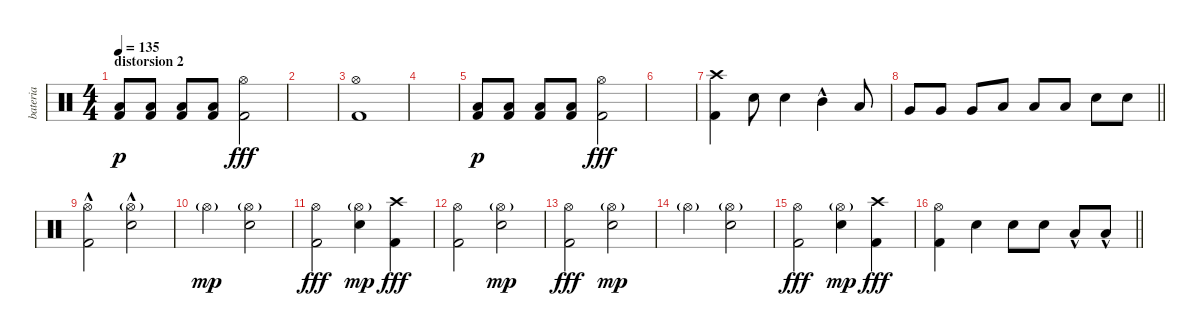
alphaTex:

\track ("bateria" "bateria") {instrument percussion}
\staff {score}
\articulation defaults
\ts (4 4)
\section ("" "distorsion 2")
\tempo 135
\clef neutral
\ks c
("Low Floor Tom (hit)" "Kick (hit) 2").8{dy p} ("Low Floor Tom (hit)" "Kick (hit) 2").8 ("Low Floor Tom (hit)" "Kick (hit) 2").8 ("Low Floor Tom (hit)" "Kick (hit) 2").8 ("Hi-Hat (open)" "Kick (hit) 2").2{dy fff} |
|
("Hi-Hat (open)" "Kick (hit) 2").1 |
|
("Low Floor Tom (hit)" "Kick (hit) 2").8{dy p} ("Low Floor Tom (hit)" "Kick (hit) 2").8 ("Low Floor Tom (hit)" "Kick (hit) 2").8 ("Low Floor Tom (hit)" "Kick (hit) 2").8 ("Hi-Hat (open)" "Kick (hit) 2").2{dy fff} |
|
("Crash high (hit)" "Kick (hit) 2").4 "Snare (hit) 2".8 "Snare (hit) 2".4 "Mid Tom (hit)"{hac}.4 "Low Tom (hit)".8 |
\barLineRight lightlight "Very Low Tom (hit)".8 "Very Low Tom (hit)".8 "Very Low Tom (hit)".8 "Low Floor Tom (hit)".8 "Low Floor Tom (hit)".8 "Low Floor Tom (hit)".8 "Snare (hit) 2".8 "Snare (hit) 2".8
|
("Hi-Hat (open)" "Kick (hit) 2"{hac}).2 ("Hi-Hat (open)"{g} "Snare (hit) 2"{hac}).2 |
"Hi-Hat (open)"{g}.2{dy mp} ("Hi-Hat (open)"{g} "Snare (hit) 2").2 |
("Hi-Hat (open)" "Kick (hit) 2").2{dy fff} ("Hi-Hat (open)"{g} "Snare (hit) 2").4{dy mp} ("Crash high (hit)" "Kick (hit) 2").4{dy fff} |
("Hi-Hat (open)" "Kick (hit) 2").2 ("Hi-Hat (open)"{g} "Snare (hit) 2").2{dy mp} |
("Hi-Hat (open)" "Kick (hit) 2").2{dy fff} ("Hi-Hat (open)"{g} "Snare (hit) 2").2{dy mp} |
"Hi-Hat (open)"{g}.2 ("Hi-Hat (open)"{g} "Snare (hit) 2").2 |
("Hi-Hat (open)" "Kick (hit) 2").2{dy fff} ("Hi-Hat (open)"{g} "Snare (hit) 2").4{dy mp} ("Crash high (hit)" "Kick (hit) 2").4{dy fff} |
\barLineRight lightlight
("Hi-Hat (open)" "Kick (hit) 2").4 "Snare (hit) 2".4 "Snare (hit) 2".8 "Snare (hit) 2".8 "Low Floor Tom (hit)"{hac}.8 "Low Floor Tom (hit)"{hac}.8
